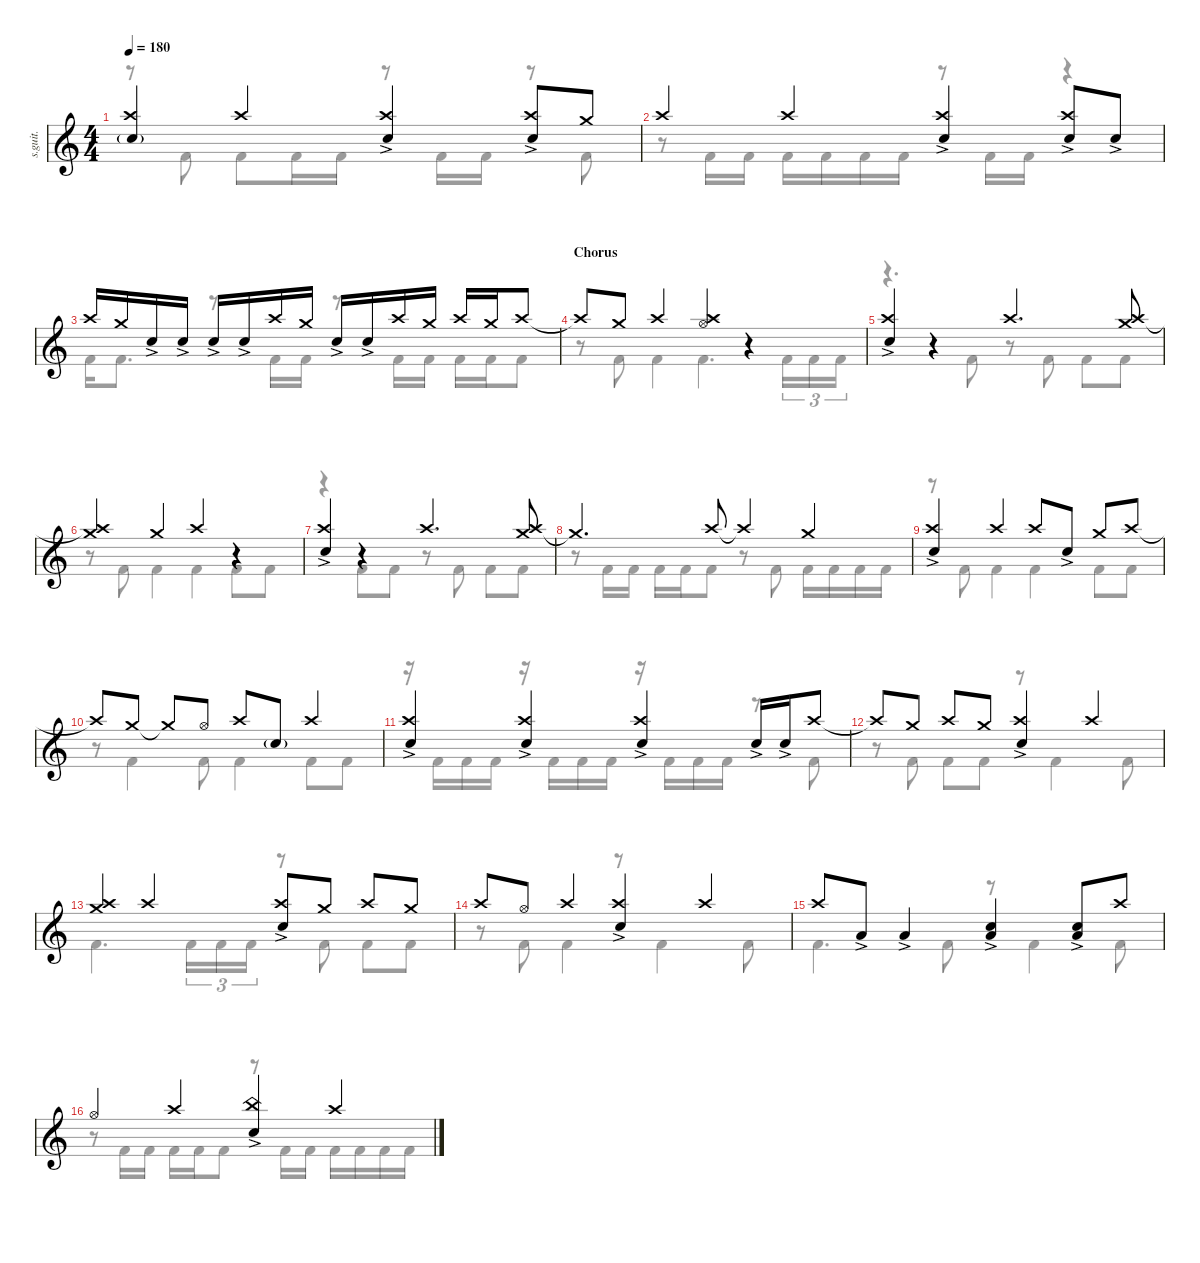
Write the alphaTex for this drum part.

\defaultSystemsLayout 4
\hideDynamics
\bracketExtendMode nobrackets
\track ("Percussion" "s.guit.") {instrument percussion}
\staff {score}
\articulation defaults
\voice
\ts (4 4)
\tempo 180
\clef g2
\ks c
("Snare (hit) 2"{g} "Crash high (hit)").4{lyrics (0 "") lyrics (1 "") lyrics (2 "") lyrics (3 "") lyrics (4 "") dy f} "Crash high (hit)".4{lyrics (0 "") lyrics (1 "") lyrics (2 "") lyrics (3 "") lyrics (4 "")} ("Crash high (hit)" "Snare (hit) 2"{ac}).4{lyrics (0 "") lyrics (1 "") lyrics (2 "") lyrics (3 "") lyrics (4 "")} ("Crash high (hit)" "Snare (hit) 2"{ac}).8{lyrics (0 "") lyrics (1 "") lyrics (2 "") lyrics (3 "") lyrics (4 "")} "Crash medium (hit)".8{lyrics (0 "") lyrics (1 "") lyrics (2 "") lyrics (3 "") lyrics (4 "")} |
"Crash high (hit)".4{lyrics (0 "") lyrics (1 "") lyrics (2 "") lyrics (3 "") lyrics (4 "")} "Crash high (hit)".4{lyrics (0 "") lyrics (1 "") lyrics (2 "") lyrics (3 "") lyrics (4 "")} ("Crash high (hit)" "Snare (hit) 2"{ac}).4{lyrics (0 "") lyrics (1 "") lyrics (2 "") lyrics (3 "") lyrics (4 "")} ("Crash high (hit)" "Snare (hit) 2"{ac}).8{lyrics (0 "") lyrics (1 "") lyrics (2 "") lyrics (3 "") lyrics (4 "")} "Snare (hit) 2"{ac}.8{lyrics (0 "") lyrics (1 "") lyrics (2 "") lyrics (3 "") lyrics (4 "")} |
"Crash high (hit)".16{lyrics (0 "") lyrics (1 "") lyrics (2 "") lyrics (3 "") lyrics (4 "")} "Crash medium (hit)".16{lyrics (0 "") lyrics (1 "") lyrics (2 "") lyrics (3 "") lyrics (4 "")} "Snare (hit) 2"{ac}.16{lyrics (0 "") lyrics (1 "") lyrics (2 "") lyrics (3 "") lyrics (4 "")} "Snare (hit) 2"{ac}.16{lyrics (0 "") lyrics (1 "") lyrics (2 "") lyrics (3 "") lyrics (4 "")} "Snare (hit) 2"{ac}.16{lyrics (0 "") lyrics (1 "") lyrics (2 "") lyrics (3 "") lyrics (4 "")} "Snare (hit) 2"{ac}.16{lyrics (0 "") lyrics (1 "") lyrics (2 "") lyrics (3 "") lyrics (4 "")} "Crash high (hit)".16{lyrics (0 "") lyrics (1 "") lyrics (2 "") lyrics (3 "") lyrics (4 "")} "Crash medium (hit)".16{lyrics (0 "") lyrics (1 "") lyrics (2 "") lyrics (3 "") lyrics (4 "")} "Snare (hit) 2"{ac}.16{lyrics (0 "") lyrics (1 "") lyrics (2 "") lyrics (3 "") lyrics (4 "")} "Snare (hit) 2"{ac}.16{lyrics (0 "") lyrics (1 "") lyrics (2 "") lyrics (3 "") lyrics (4 "")} "Crash high (hit)".16{lyrics (0 "") lyrics (1 "") lyrics (2 "") lyrics (3 "") lyrics (4 "")} "Crash medium (hit)".16{lyrics (0 "") lyrics (1 "") lyrics (2 "") lyrics (3 "") lyrics (4 "")} "Crash high (hit)".16{lyrics (0 "") lyrics (1 "") lyrics (2 "") lyrics (3 "") lyrics (4 "")} "Crash medium (hit)".16{lyrics (0 "") lyrics (1 "") lyrics (2 "") lyrics (3 "") lyrics (4 "")} "Crash high (hit)".8{lyrics (0 "") lyrics (1 "") lyrics (2 "") lyrics (3 "") lyrics (4 "")} |
\section ("" "Chorus")
"Crash high (hit)"{t}.8{lyrics (0 "") lyrics (1 "") lyrics (2 "") lyrics (3 "") lyrics (4 "")} "Crash medium (hit)".8{lyrics (0 "") lyrics (1 "") lyrics (2 "") lyrics (3 "") lyrics (4 "")} "Crash high (hit)".4{lyrics (0 "") lyrics (1 "") lyrics (2 "") lyrics (3 "") lyrics (4 "")} ("Hi-Hat (open)" "Crash high (hit)").4{lyrics (0 "") lyrics (1 "") lyrics (2 "") lyrics (3 "") lyrics (4 "")} r.4 |
("Snare (hit) 2"{ac} "Crash high (hit)").4{lyrics (0 "") lyrics (1 "") lyrics (2 "") lyrics (3 "") lyrics (4 "")} r.4 "Crash high (hit)".4{d lyrics (0 "") lyrics (1 "") lyrics (2 "") lyrics (3 "") lyrics (4 "")} ("Crash high (hit)" "Crash medium (hit)").8{lyrics (0 "") lyrics (1 "") lyrics (2 "") lyrics (3 "") lyrics (4 "")} |
("Crash high (hit)"{t} "Crash medium (hit)").4{lyrics (0 "") lyrics (1 "") lyrics (2 "") lyrics (3 "") lyrics (4 "")} "Crash medium (hit)".4{lyrics (0 "") lyrics (1 "") lyrics (2 "") lyrics (3 "") lyrics (4 "")} "Crash high (hit)".4{lyrics (0 "") lyrics (1 "") lyrics (2 "") lyrics (3 "") lyrics (4 "")} r.4 |
("Snare (hit) 2"{ac} "Crash high (hit)").4{lyrics (0 "") lyrics (1 "") lyrics (2 "") lyrics (3 "") lyrics (4 "")} r.4 "Crash high (hit)".4{d lyrics (0 "") lyrics (1 "") lyrics (2 "") lyrics (3 "") lyrics (4 "")} ("Crash high (hit)" "Crash medium (hit)").8{lyrics (0 "") lyrics (1 "") lyrics (2 "") lyrics (3 "") lyrics (4 "")} |
"Crash medium (hit)"{t}.4{d lyrics (0 "") lyrics (1 "") lyrics (2 "") lyrics (3 "") lyrics (4 "")} "Crash high (hit)".8{lyrics (0 "") lyrics (1 "") lyrics (2 "") lyrics (3 "") lyrics (4 "")} "Crash high (hit)"{t}.4{lyrics (0 "") lyrics (1 "") lyrics (2 "") lyrics (3 "") lyrics (4 "")} "Crash medium (hit)".4{lyrics (0 "") lyrics (1 "") lyrics (2 "") lyrics (3 "") lyrics (4 "")} |
("Snare (hit) 2"{ac} "Crash high (hit)").4{lyrics (0 "") lyrics (1 "") lyrics (2 "") lyrics (3 "") lyrics (4 "")} "Crash high (hit)".4{lyrics (0 "") lyrics (1 "") lyrics (2 "") lyrics (3 "") lyrics (4 "")} "Crash high (hit)".8{lyrics (0 "") lyrics (1 "") lyrics (2 "") lyrics (3 "") lyrics (4 "")} "Snare (hit) 2"{ac}.8{lyrics (0 "") lyrics (1 "") lyrics (2 "") lyrics (3 "") lyrics (4 "")} "Crash medium (hit)".8{lyrics (0 "") lyrics (1 "") lyrics (2 "") lyrics (3 "") lyrics (4 "")} "Crash high (hit)".8{lyrics (0 "") lyrics (1 "") lyrics (2 "") lyrics (3 "") lyrics (4 "")} |
"Crash high (hit)"{t}.8{lyrics (0 "") lyrics (1 "") lyrics (2 "") lyrics (3 "") lyrics (4 "")} "Crash medium (hit)".8{lyrics (0 "") lyrics (1 "") lyrics (2 "") lyrics (3 "") lyrics (4 "")} "Crash medium (hit)"{t}.8{lyrics (0 "") lyrics (1 "") lyrics (2 "") lyrics (3 "") lyrics (4 "")} "Hi-Hat (open)".8{lyrics (0 "") lyrics (1 "") lyrics (2 "") lyrics (3 "") lyrics (4 "")} "Crash high (hit)".8{lyrics (0 "") lyrics (1 "") lyrics (2 "") lyrics (3 "") lyrics (4 "")} "Snare (hit) 2"{g}.8{lyrics (0 "") lyrics (1 "") lyrics (2 "") lyrics (3 "") lyrics (4 "")} "Crash high (hit)".4{lyrics (0 "") lyrics (1 "") lyrics (2 "") lyrics (3 "") lyrics (4 "")} |
("Snare (hit) 2"{ac} "Crash high (hit)").4{lyrics (0 "") lyrics (1 "") lyrics (2 "") lyrics (3 "") lyrics (4 "")} ("Crash high (hit)" "Snare (hit) 2"{ac}).4{lyrics (0 "") lyrics (1 "") lyrics (2 "") lyrics (3 "") lyrics (4 "")} ("Crash high (hit)" "Snare (hit) 2"{ac}).4{lyrics (0 "") lyrics (1 "") lyrics (2 "") lyrics (3 "") lyrics (4 "")} "Snare (hit) 2"{ac}.16{lyrics (0 "") lyrics (1 "") lyrics (2 "") lyrics (3 "") lyrics (4 "")} "Snare (hit) 2"{ac}.16{lyrics (0 "") lyrics (1 "") lyrics (2 "") lyrics (3 "") lyrics (4 "")} "Crash high (hit)".8{lyrics (0 "") lyrics (1 "") lyrics (2 "") lyrics (3 "") lyrics (4 "")} |
"Crash high (hit)"{t}.8{lyrics (0 "") lyrics (1 "") lyrics (2 "") lyrics (3 "") lyrics (4 "")} "Crash medium (hit)".8{lyrics (0 "") lyrics (1 "") lyrics (2 "") lyrics (3 "") lyrics (4 "")} "Crash high (hit)".8{lyrics (0 "") lyrics (1 "") lyrics (2 "") lyrics (3 "") lyrics (4 "")} "Crash medium (hit)".8{lyrics (0 "") lyrics (1 "") lyrics (2 "") lyrics (3 "") lyrics (4 "")} ("Crash high (hit)" "Snare (hit) 2"{ac}).4{lyrics (0 "") lyrics (1 "") lyrics (2 "") lyrics (3 "") lyrics (4 "")} "Crash high (hit)".4{lyrics (0 "") lyrics (1 "") lyrics (2 "") lyrics (3 "") lyrics (4 "")} |
("Crash medium (hit)" "Crash high (hit)").4{lyrics (0 "") lyrics (1 "") lyrics (2 "") lyrics (3 "") lyrics (4 "")} "Crash high (hit)".4{lyrics (0 "") lyrics (1 "") lyrics (2 "") lyrics (3 "") lyrics (4 "")} ("Crash high (hit)" "Snare (hit) 2"{ac}).8{lyrics (0 "") lyrics (1 "") lyrics (2 "") lyrics (3 "") lyrics (4 "")} "Crash medium (hit)".8{lyrics (0 "") lyrics (1 "") lyrics (2 "") lyrics (3 "") lyrics (4 "")} "Crash high (hit)".8{lyrics (0 "") lyrics (1 "") lyrics (2 "") lyrics (3 "") lyrics (4 "")} "Crash medium (hit)".8{lyrics (0 "") lyrics (1 "") lyrics (2 "") lyrics (3 "") lyrics (4 "")} |
"Crash high (hit)".8{lyrics (0 "") lyrics (1 "") lyrics (2 "") lyrics (3 "") lyrics (4 "")} "Hi-Hat (open)".8{lyrics (0 "") lyrics (1 "") lyrics (2 "") lyrics (3 "") lyrics (4 "")} "Crash high (hit)".4{lyrics (0 "") lyrics (1 "") lyrics (2 "") lyrics (3 "") lyrics (4 "")} ("Crash high (hit)" "Snare (hit) 2"{ac}).4{lyrics (0 "") lyrics (1 "") lyrics (2 "") lyrics (3 "") lyrics (4 "")} "Crash high (hit)".4{lyrics (0 "") lyrics (1 "") lyrics (2 "") lyrics (3 "") lyrics (4 "")} |
"Crash high (hit)".8{lyrics (0 "") lyrics (1 "") lyrics (2 "") lyrics (3 "") lyrics (4 "")} "Low Tom (hit)"{ac}.8{lyrics (0 "") lyrics (1 "") lyrics (2 "") lyrics (3 "") lyrics (4 "")} "Low Tom (hit)"{ac}.4{lyrics (0 "") lyrics (1 "") lyrics (2 "") lyrics (3 "") lyrics (4 "")} ("Low Tom (hit)"{ac} "Snare (hit) 2"{ac}).4{lyrics (0 "") lyrics (1 "") lyrics (2 "") lyrics (3 "") lyrics (4 "")} ("Low Tom (hit)"{ac} "Snare (hit) 2"{ac}).8{lyrics (0 "") lyrics (1 "") lyrics (2 "") lyrics (3 "") lyrics (4 "")} "Crash high (hit)".8{lyrics (0 "") lyrics (1 "") lyrics (2 "") lyrics (3 "") lyrics (4 "")} |
"Hi-Hat (open)".4{lyrics (0 "") lyrics (1 "") lyrics (2 "") lyrics (3 "") lyrics (4 "")} "Crash high (hit)".4{lyrics (0 "") lyrics (1 "") lyrics (2 "") lyrics (3 "") lyrics (4 "")} ("China (hit)" "Snare (hit) 2"{ac}).4{lyrics (0 "") lyrics (1 "") lyrics (2 "") lyrics (3 "") lyrics (4 "")} "Crash high (hit)".4{lyrics (0 "") lyrics (1 "") lyrics (2 "") lyrics (3 "") lyrics (4 "")}
\voice
\clef g2
\ottava regular
\simile none
\ks c
r.8{dy f} "Kick (hit) 2".8{lyrics (0 "") lyrics (1 "") lyrics (2 "") lyrics (3 "") lyrics (4 "")} "Kick (hit) 2".8{lyrics (0 "") lyrics (1 "") lyrics (2 "") lyrics (3 "") lyrics (4 "")} "Kick (hit) 2".16{lyrics (0 "") lyrics (1 "") lyrics (2 "") lyrics (3 "") lyrics (4 "")} "Kick (hit) 2".16{lyrics (0 "") lyrics (1 "") lyrics (2 "") lyrics (3 "") lyrics (4 "")} r.8 "Kick (hit) 2".16{lyrics (0 "") lyrics (1 "") lyrics (2 "") lyrics (3 "") lyrics (4 "")} "Kick (hit) 2".16{lyrics (0 "") lyrics (1 "") lyrics (2 "") lyrics (3 "") lyrics (4 "")} r.8 "Kick (hit) 2".8{lyrics (0 "") lyrics (1 "") lyrics (2 "") lyrics (3 "") lyrics (4 "")} |
r.8 "Kick (hit) 2".16{lyrics (0 "") lyrics (1 "") lyrics (2 "") lyrics (3 "") lyrics (4 "")} "Kick (hit) 2".16{lyrics (0 "") lyrics (1 "") lyrics (2 "") lyrics (3 "") lyrics (4 "")} "Kick (hit) 2".16{lyrics (0 "") lyrics (1 "") lyrics (2 "") lyrics (3 "") lyrics (4 "")} "Kick (hit) 2".16{lyrics (0 "") lyrics (1 "") lyrics (2 "") lyrics (3 "") lyrics (4 "")} "Kick (hit) 2".16{lyrics (0 "") lyrics (1 "") lyrics (2 "") lyrics (3 "") lyrics (4 "")} "Kick (hit) 2".16{lyrics (0 "") lyrics (1 "") lyrics (2 "") lyrics (3 "") lyrics (4 "")} r.8 "Kick (hit) 2".16{lyrics (0 "") lyrics (1 "") lyrics (2 "") lyrics (3 "") lyrics (4 "")} "Kick (hit) 2".16{lyrics (0 "") lyrics (1 "") lyrics (2 "") lyrics (3 "") lyrics (4 "")} r.4 |
"Kick (hit) 2".16{lyrics (0 "") lyrics (1 "") lyrics (2 "") lyrics (3 "") lyrics (4 "")} "Kick (hit) 2".8{d lyrics (0 "") lyrics (1 "") lyrics (2 "") lyrics (3 "") lyrics (4 "")} r.8 "Kick (hit) 2".16{lyrics (0 "") lyrics (1 "") lyrics (2 "") lyrics (3 "") lyrics (4 "")} "Kick (hit) 2".16{lyrics (0 "") lyrics (1 "") lyrics (2 "") lyrics (3 "") lyrics (4 "")} r.8 "Kick (hit) 2".16{lyrics (0 "") lyrics (1 "") lyrics (2 "") lyrics (3 "") lyrics (4 "")} "Kick (hit) 2".16{lyrics (0 "") lyrics (1 "") lyrics (2 "") lyrics (3 "") lyrics (4 "")} "Kick (hit) 2".16{lyrics (0 "") lyrics (1 "") lyrics (2 "") lyrics (3 "") lyrics (4 "")} "Kick (hit) 2".16{lyrics (0 "") lyrics (1 "") lyrics (2 "") lyrics (3 "") lyrics (4 "")} "Kick (hit) 2".8{lyrics (0 "") lyrics (1 "") lyrics (2 "") lyrics (3 "") lyrics (4 "")} |
r.8 "Kick (hit) 2".8{lyrics (0 "") lyrics (1 "") lyrics (2 "") lyrics (3 "") lyrics (4 "")} "Kick (hit) 2".4{lyrics (0 "") lyrics (1 "") lyrics (2 "") lyrics (3 "") lyrics (4 "")} "Kick (hit) 2".4{d lyrics (0 "") lyrics (1 "") lyrics (2 "") lyrics (3 "") lyrics (4 "")} "Kick (hit) 2".16{tu (3 2) lyrics (0 "") lyrics (1 "") lyrics (2 "") lyrics (3 "") lyrics (4 "")} "Kick (hit) 2".16{tu (3 2) lyrics (0 "") lyrics (1 "") lyrics (2 "") lyrics (3 "") lyrics (4 "")} "Kick (hit) 2".16{tu (3 2) lyrics (0 "") lyrics (1 "") lyrics (2 "") lyrics (3 "") lyrics (4 "")} |
r.4{d} "Kick (hit) 2".8{lyrics (0 "") lyrics (1 "") lyrics (2 "") lyrics (3 "") lyrics (4 "")} r.8 "Kick (hit) 2".8{lyrics (0 "") lyrics (1 "") lyrics (2 "") lyrics (3 "") lyrics (4 "")} "Kick (hit) 2".8{lyrics (0 "") lyrics (1 "") lyrics (2 "") lyrics (3 "") lyrics (4 "")} "Kick (hit) 2".8{lyrics (0 "") lyrics (1 "") lyrics (2 "") lyrics (3 "") lyrics (4 "")} |
r.8 "Kick (hit) 2".8{lyrics (0 "") lyrics (1 "") lyrics (2 "") lyrics (3 "") lyrics (4 "")} "Kick (hit) 2".4{lyrics (0 "") lyrics (1 "") lyrics (2 "") lyrics (3 "") lyrics (4 "")} "Kick (hit) 2".4{lyrics (0 "") lyrics (1 "") lyrics (2 "") lyrics (3 "") lyrics (4 "")} "Kick (hit) 2".8{lyrics (0 "") lyrics (1 "") lyrics (2 "") lyrics (3 "") lyrics (4 "")} "Kick (hit) 2".8{lyrics (0 "") lyrics (1 "") lyrics (2 "") lyrics (3 "") lyrics (4 "")} |
r.4 "Kick (hit) 2".8{lyrics (0 "") lyrics (1 "") lyrics (2 "") lyrics (3 "") lyrics (4 "")} "Kick (hit) 2".8{lyrics (0 "") lyrics (1 "") lyrics (2 "") lyrics (3 "") lyrics (4 "")} r.8 "Kick (hit) 2".8{lyrics (0 "") lyrics (1 "") lyrics (2 "") lyrics (3 "") lyrics (4 "")} "Kick (hit) 2".8{lyrics (0 "") lyrics (1 "") lyrics (2 "") lyrics (3 "") lyrics (4 "")} "Kick (hit) 2".8{lyrics (0 "") lyrics (1 "") lyrics (2 "") lyrics (3 "") lyrics (4 "")} |
r.8 "Kick (hit) 2".16{lyrics (0 "") lyrics (1 "") lyrics (2 "") lyrics (3 "") lyrics (4 "")} "Kick (hit) 2".16{lyrics (0 "") lyrics (1 "") lyrics (2 "") lyrics (3 "") lyrics (4 "")} "Kick (hit) 2".16{lyrics (0 "") lyrics (1 "") lyrics (2 "") lyrics (3 "") lyrics (4 "")} "Kick (hit) 2".16{lyrics (0 "") lyrics (1 "") lyrics (2 "") lyrics (3 "") lyrics (4 "")} "Kick (hit) 2".8{lyrics (0 "") lyrics (1 "") lyrics (2 "") lyrics (3 "") lyrics (4 "")} r.8 "Kick (hit) 2".8{lyrics (0 "") lyrics (1 "") lyrics (2 "") lyrics (3 "") lyrics (4 "")} "Kick (hit) 2".16{lyrics (0 "") lyrics (1 "") lyrics (2 "") lyrics (3 "") lyrics (4 "")} "Kick (hit) 2".16{lyrics (0 "") lyrics (1 "") lyrics (2 "") lyrics (3 "") lyrics (4 "")} "Kick (hit) 2".16{lyrics (0 "") lyrics (1 "") lyrics (2 "") lyrics (3 "") lyrics (4 "")} "Kick (hit) 2".16{lyrics (0 "") lyrics (1 "") lyrics (2 "") lyrics (3 "") lyrics (4 "")} |
r.8 "Kick (hit) 2".8{lyrics (0 "") lyrics (1 "") lyrics (2 "") lyrics (3 "") lyrics (4 "")} "Kick (hit) 2".4{lyrics (0 "") lyrics (1 "") lyrics (2 "") lyrics (3 "") lyrics (4 "")} "Kick (hit) 2".4{lyrics (0 "") lyrics (1 "") lyrics (2 "") lyrics (3 "") lyrics (4 "")} "Kick (hit) 2".8{lyrics (0 "") lyrics (1 "") lyrics (2 "") lyrics (3 "") lyrics (4 "")} "Kick (hit) 2".8{lyrics (0 "") lyrics (1 "") lyrics (2 "") lyrics (3 "") lyrics (4 "")} |
r.8 "Kick (hit) 2".4{lyrics (0 "") lyrics (1 "") lyrics (2 "") lyrics (3 "") lyrics (4 "")} "Kick (hit) 2".8{lyrics (0 "") lyrics (1 "") lyrics (2 "") lyrics (3 "") lyrics (4 "")} "Kick (hit) 2".4{lyrics (0 "") lyrics (1 "") lyrics (2 "") lyrics (3 "") lyrics (4 "")} "Kick (hit) 2".8{lyrics (0 "") lyrics (1 "") lyrics (2 "") lyrics (3 "") lyrics (4 "")} "Kick (hit) 2".8{lyrics (0 "") lyrics (1 "") lyrics (2 "") lyrics (3 "") lyrics (4 "")} |
r.16 "Kick (hit) 2".16{lyrics (0 "") lyrics (1 "") lyrics (2 "") lyrics (3 "") lyrics (4 "")} "Kick (hit) 2".16{lyrics (0 "") lyrics (1 "") lyrics (2 "") lyrics (3 "") lyrics (4 "")} "Kick (hit) 2".16{lyrics (0 "") lyrics (1 "") lyrics (2 "") lyrics (3 "") lyrics (4 "")} r.16 "Kick (hit) 2".16{lyrics (0 "") lyrics (1 "") lyrics (2 "") lyrics (3 "") lyrics (4 "")} "Kick (hit) 2".16{lyrics (0 "") lyrics (1 "") lyrics (2 "") lyrics (3 "") lyrics (4 "")} "Kick (hit) 2".16{lyrics (0 "") lyrics (1 "") lyrics (2 "") lyrics (3 "") lyrics (4 "")} r.16 "Kick (hit) 2".16{lyrics (0 "") lyrics (1 "") lyrics (2 "") lyrics (3 "") lyrics (4 "")} "Kick (hit) 2".16{lyrics (0 "") lyrics (1 "") lyrics (2 "") lyrics (3 "") lyrics (4 "")} "Kick (hit) 2".16{lyrics (0 "") lyrics (1 "") lyrics (2 "") lyrics (3 "") lyrics (4 "")} r.8 "Kick (hit) 2".8{lyrics (0 "") lyrics (1 "") lyrics (2 "") lyrics (3 "") lyrics (4 "")} |
r.8 "Kick (hit) 2".8{lyrics (0 "") lyrics (1 "") lyrics (2 "") lyrics (3 "") lyrics (4 "")} "Kick (hit) 2".8{lyrics (0 "") lyrics (1 "") lyrics (2 "") lyrics (3 "") lyrics (4 "")} "Kick (hit) 2".8{lyrics (0 "") lyrics (1 "") lyrics (2 "") lyrics (3 "") lyrics (4 "")} r.8 "Kick (hit) 2".4{lyrics (0 "") lyrics (1 "") lyrics (2 "") lyrics (3 "") lyrics (4 "")} "Kick (hit) 2".8{lyrics (0 "") lyrics (1 "") lyrics (2 "") lyrics (3 "") lyrics (4 "")} |
"Kick (hit) 2".4{d lyrics (0 "") lyrics (1 "") lyrics (2 "") lyrics (3 "") lyrics (4 "")} "Kick (hit) 2".16{tu (3 2) lyrics (0 "") lyrics (1 "") lyrics (2 "") lyrics (3 "") lyrics (4 "")} "Kick (hit) 2".16{tu (3 2) lyrics (0 "") lyrics (1 "") lyrics (2 "") lyrics (3 "") lyrics (4 "")} "Kick (hit) 2".16{tu (3 2) lyrics (0 "") lyrics (1 "") lyrics (2 "") lyrics (3 "") lyrics (4 "")} r.8 "Kick (hit) 2".8{lyrics (0 "") lyrics (1 "") lyrics (2 "") lyrics (3 "") lyrics (4 "")} "Kick (hit) 2".8{lyrics (0 "") lyrics (1 "") lyrics (2 "") lyrics (3 "") lyrics (4 "")} "Kick (hit) 2".8{lyrics (0 "") lyrics (1 "") lyrics (2 "") lyrics (3 "") lyrics (4 "")} |
r.8 "Kick (hit) 2".8{lyrics (0 "") lyrics (1 "") lyrics (2 "") lyrics (3 "") lyrics (4 "")} "Kick (hit) 2".4{lyrics (0 "") lyrics (1 "") lyrics (2 "") lyrics (3 "") lyrics (4 "")} r.8 "Kick (hit) 2".4{lyrics (0 "") lyrics (1 "") lyrics (2 "") lyrics (3 "") lyrics (4 "")} "Kick (hit) 2".8{lyrics (0 "") lyrics (1 "") lyrics (2 "") lyrics (3 "") lyrics (4 "")} |
"Kick (hit) 2".4{d lyrics (0 "") lyrics (1 "") lyrics (2 "") lyrics (3 "") lyrics (4 "")} "Kick (hit) 2".8{lyrics (0 "") lyrics (1 "") lyrics (2 "") lyrics (3 "") lyrics (4 "")} r.8 "Kick (hit) 2".4{lyrics (0 "") lyrics (1 "") lyrics (2 "") lyrics (3 "") lyrics (4 "")} "Kick (hit) 2".8{lyrics (0 "") lyrics (1 "") lyrics (2 "") lyrics (3 "") lyrics (4 "")} |
r.8 "Kick (hit) 2".16{lyrics (0 "") lyrics (1 "") lyrics (2 "") lyrics (3 "") lyrics (4 "")} "Kick (hit) 2".16{lyrics (0 "") lyrics (1 "") lyrics (2 "") lyrics (3 "") lyrics (4 "")} "Kick (hit) 2".16{lyrics (0 "") lyrics (1 "") lyrics (2 "") lyrics (3 "") lyrics (4 "")} "Kick (hit) 2".16{lyrics (0 "") lyrics (1 "") lyrics (2 "") lyrics (3 "") lyrics (4 "")} "Kick (hit) 2".8{lyrics (0 "") lyrics (1 "") lyrics (2 "") lyrics (3 "") lyrics (4 "")} r.8 "Kick (hit) 2".16{lyrics (0 "") lyrics (1 "") lyrics (2 "") lyrics (3 "") lyrics (4 "")} "Kick (hit) 2".16{lyrics (0 "") lyrics (1 "") lyrics (2 "") lyrics (3 "") lyrics (4 "")} "Kick (hit) 2".16{lyrics (0 "") lyrics (1 "") lyrics (2 "") lyrics (3 "") lyrics (4 "")} "Kick (hit) 2".16{lyrics (0 "") lyrics (1 "") lyrics (2 "") lyrics (3 "") lyrics (4 "")} "Kick (hit) 2".16{lyrics (0 "") lyrics (1 "") lyrics (2 "") lyrics (3 "") lyrics (4 "")} "Kick (hit) 2".16{lyrics (0 "") lyrics (1 "") lyrics (2 "") lyrics (3 "") lyrics (4 "")}
